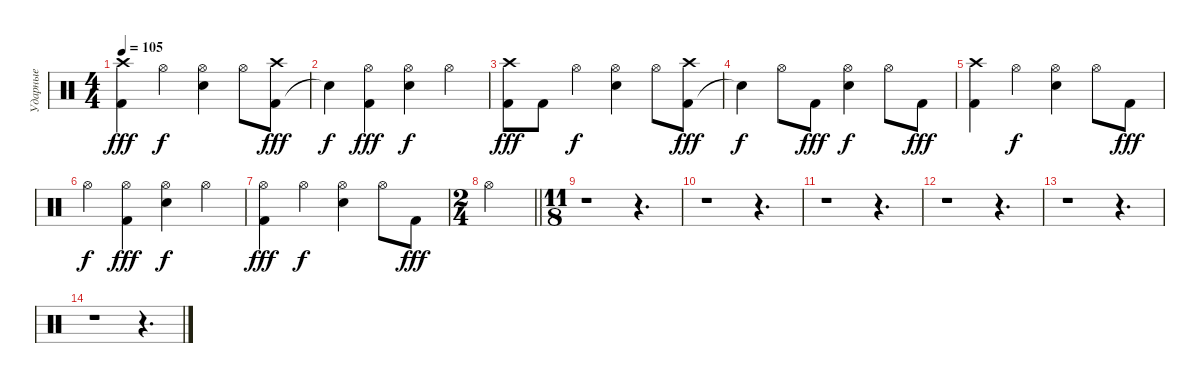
\track ("Ударные" "Ударные") {instrument percussion}
\staff {score}
\articulation defaults
\ts (4 4)
\tempo 105
\clef neutral
\ks c
("Kick (hit) 2" "Crash high (hit)").4{dy fff} "Hi-Hat (open)".4{dy f} ("Snare (hit) 2" "Hi-Hat (open)").4 "Hi-Hat (open)".8 ("Kick (hit) 2" "Crash high (hit)").8{dy fff} |
"Snare (hit)"{t}.4{dy f} ("Kick (hit) 2" "Hi-Hat (open)").4{dy fff} ("Snare (hit) 2" "Hi-Hat (open)").4{dy f} "Hi-Hat (open)".4 |
("Kick (hit) 2" "Crash high (hit)").8{dy fff} "Kick (hit) 2".8 "Hi-Hat (open)".4{dy f} ("Snare (hit) 2" "Hi-Hat (open)").4 "Hi-Hat (open)".8 ("Kick (hit) 2" "Crash high (hit)").8{dy fff} |
"Snare (hit)"{t}.4{dy f} "Hi-Hat (open)".8 "Kick (hit) 2".8{dy fff} ("Snare (hit) 2" "Hi-Hat (open)").4{dy f} "Hi-Hat (open)".8 "Kick (hit) 2".8{dy fff} |
("Kick (hit) 2" "Crash high (hit)").4 "Hi-Hat (open)".4{dy f} ("Snare (hit) 2" "Hi-Hat (open)").4 "Hi-Hat (open)".8 "Kick (hit) 2".8{dy fff} |
"Hi-Hat (open)".4{dy f} ("Kick (hit) 2" "Hi-Hat (open)").4{dy fff} ("Snare (hit) 2" "Hi-Hat (open)").4{dy f} "Hi-Hat (open)".4 |
("Kick (hit) 2" "Hi-Hat (open)").4{dy fff} "Hi-Hat (open)".4{dy f} ("Snare (hit) 2" "Hi-Hat (open)").4 "Hi-Hat (open)".8 "Kick (hit) 2".8{dy fff} |
\ts (2 4)
\barLineRight lightlight "Hi-Hat (open)".2
|
\ts (11 8)
r.1 r.4{d} |
r.1 r.4{d} |
r.1 r.4{d} |
r.1 r.4{d} |
r.1 r.4{d} |
r.1 r.4{d}
